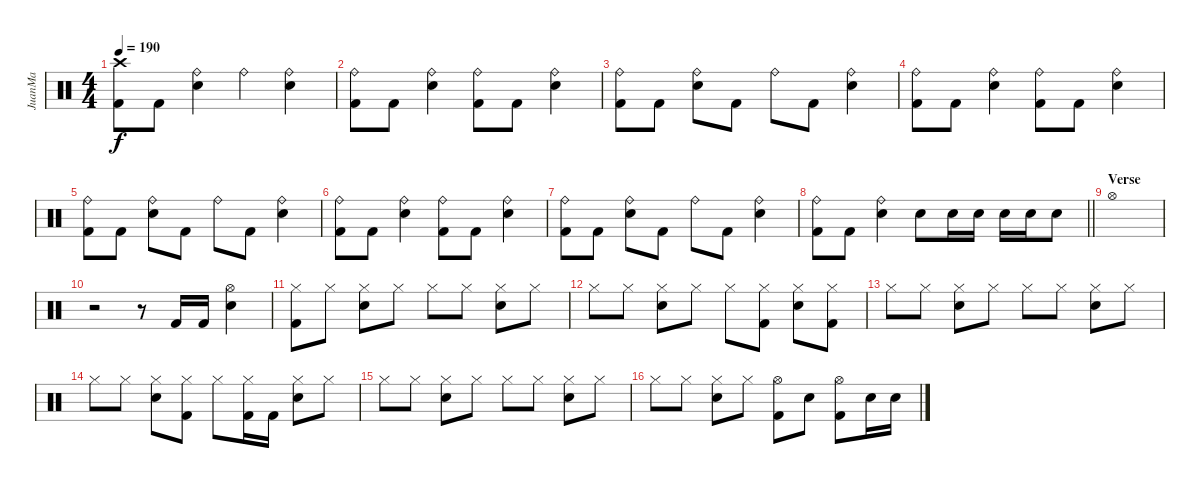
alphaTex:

\track ("JuanMa" "JuanMa") {instrument percussion}
\staff {score}
\articulation defaults
\ts (4 4)
\tempo 190
\clef neutral
\ks c
("Crash high (hit)" "Kick (hit) 2").8{dy f} "Kick (hit) 2".8 ("Ride (bell)" "Electric Snare (hit)").4 "Ride (bell)".4 ("Ride (bell)" "Electric Snare (hit)").4 |
("Ride (bell)" "Kick (hit) 2").8 "Kick (hit) 2".8 ("Ride (bell)" "Electric Snare (hit)").4 ("Ride (bell)" "Kick (hit) 2").8 "Kick (hit) 2".8 ("Ride (bell)" "Electric Snare (hit)").4 |
("Ride (bell)" "Kick (hit) 2").8 "Kick (hit) 2".8 ("Ride (bell)" "Electric Snare (hit)").8 "Kick (hit) 2".8 "Ride (bell)".8 "Kick (hit) 2".8 ("Ride (bell)" "Electric Snare (hit)").4 |
("Ride (bell)" "Kick (hit) 2").8 "Kick (hit) 2".8 ("Ride (bell)" "Electric Snare (hit)").4 ("Ride (bell)" "Kick (hit) 2").8 "Kick (hit) 2".8 ("Ride (bell)" "Electric Snare (hit)").4 |
("Ride (bell)" "Kick (hit) 2").8 "Kick (hit) 2".8 ("Ride (bell)" "Electric Snare (hit)").8 "Kick (hit) 2".8 "Ride (bell)".8 "Kick (hit) 2".8 ("Ride (bell)" "Electric Snare (hit)").4 |
("Ride (bell)" "Kick (hit) 2").8 "Kick (hit) 2".8 ("Ride (bell)" "Electric Snare (hit)").4 ("Ride (bell)" "Kick (hit) 2").8 "Kick (hit) 2".8 ("Ride (bell)" "Electric Snare (hit)").4 |
("Ride (bell)" "Kick (hit) 2").8 "Kick (hit) 2".8 ("Ride (bell)" "Electric Snare (hit)").8 "Kick (hit) 2".8 "Ride (bell)".8 "Kick (hit) 2".8 ("Ride (bell)" "Electric Snare (hit)").4 |
\barLineRight lightlight
("Ride (bell)" "Kick (hit) 2").8 "Kick (hit) 2".8 ("Ride (bell)" "Electric Snare (hit)").4 "Electric Snare (hit)".8 "Electric Snare (hit)".16 "Electric Snare (hit)".16 "Electric Snare (hit)".16 "Electric Snare (hit)".16 "Electric Snare (hit)".8 |
\section ("" "Verse ")
"Hi-Hat (open)".1 |
r.2 r.8 "Kick (hit) 2".16 "Kick (hit) 2".16 ("Hi-Hat (open)" "Electric Snare (hit)").4 |
("Hi-Hat (closed)" "Kick (hit) 2").8 "Hi-Hat (closed)".8 ("Hi-Hat (closed)" "Electric Snare (hit)").8 "Hi-Hat (closed)".8 "Hi-Hat (closed)".8 "Hi-Hat (closed)".8 ("Hi-Hat (closed)" "Electric Snare (hit)").8 "Hi-Hat (closed)".8 |
"Hi-Hat (closed)".8 "Hi-Hat (closed)".8 ("Hi-Hat (closed)" "Electric Snare (hit)").8 "Hi-Hat (closed)".8 "Hi-Hat (closed)".8 ("Hi-Hat (closed)" "Kick (hit) 2").8 ("Hi-Hat (closed)" "Electric Snare (hit)").8 ("Hi-Hat (closed)" "Kick (hit) 2").8 |
"Hi-Hat (closed)".8 "Hi-Hat (closed)".8 ("Hi-Hat (closed)" "Electric Snare (hit)").8 "Hi-Hat (closed)".8 "Hi-Hat (closed)".8 "Hi-Hat (closed)".8 ("Hi-Hat (closed)" "Electric Snare (hit)").8 "Hi-Hat (closed)".8 |
"Hi-Hat (closed)".8 "Hi-Hat (closed)".8 ("Hi-Hat (closed)" "Electric Snare (hit)").8 ("Hi-Hat (closed)" "Kick (hit) 2").8 "Hi-Hat (closed)".8 ("Hi-Hat (closed)" "Kick (hit) 2").16 "Kick (hit) 2".16 ("Hi-Hat (closed)" "Electric Snare (hit)").8 "Hi-Hat (closed)".8 |
"Hi-Hat (closed)".8 "Hi-Hat (closed)".8 ("Hi-Hat (closed)" "Electric Snare (hit)").8 "Hi-Hat (closed)".8 "Hi-Hat (closed)".8 "Hi-Hat (closed)".8 ("Hi-Hat (closed)" "Electric Snare (hit)").8 "Hi-Hat (closed)".8 |
"Hi-Hat (closed)".8 "Hi-Hat (closed)".8 ("Hi-Hat (closed)" "Electric Snare (hit)").8 "Hi-Hat (closed)".8 ("Hi-Hat (open)" "Kick (hit) 2").8 "Electric Snare (hit)".8 ("Hi-Hat (open)" "Kick (hit) 2").8 "Electric Snare (hit)".16 "Electric Snare (hit)".16
